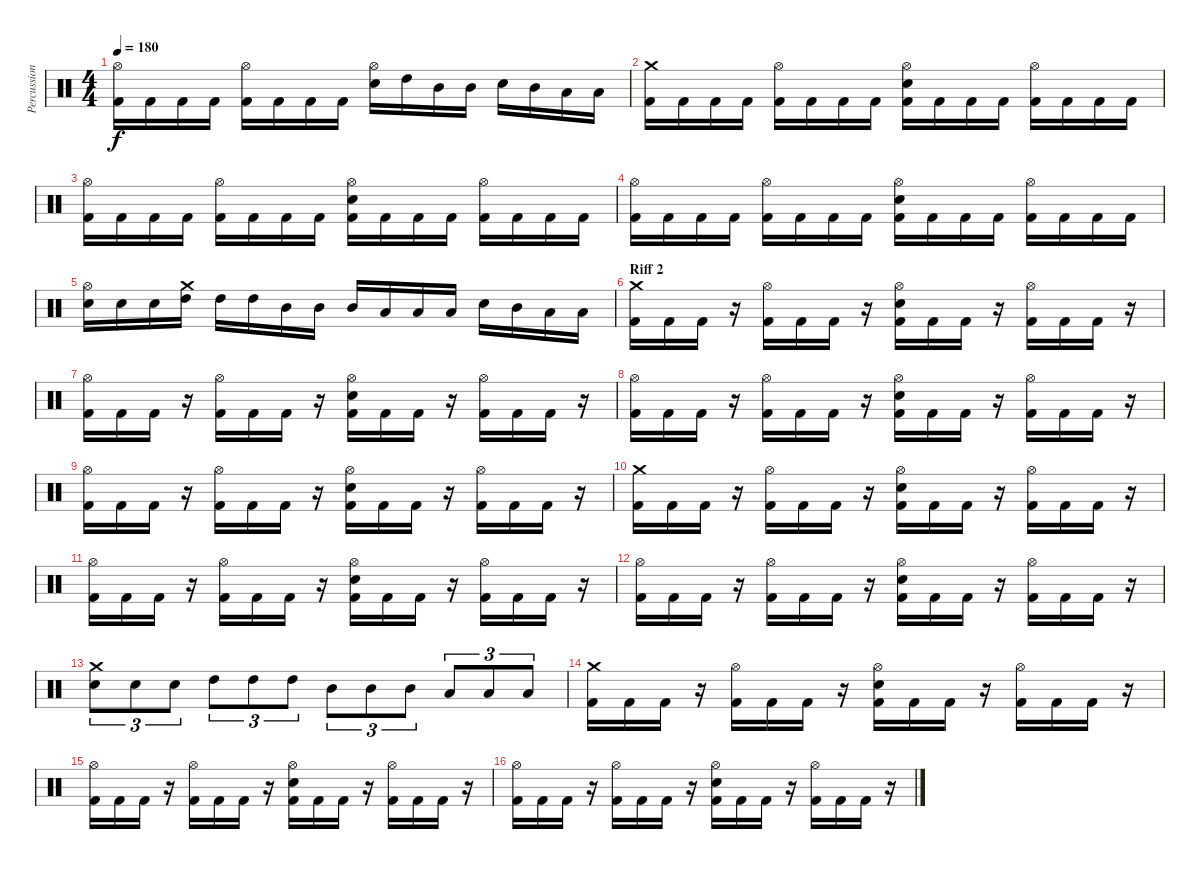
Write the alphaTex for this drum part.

\track ("Percussions" "Percussion") {instrument percussion}
\staff {score}
\articulation defaults
\ts (4 4)
\tempo 180
\clef neutral
\ks c
("Hi-Hat (open)" "Kick (hit) 2").16{dy f} "Kick (hit) 2".16 "Kick (hit) 2".16 "Kick (hit) 2".16 ("Hi-Hat (open)" "Kick (hit) 2").16 "Kick (hit) 2".16 "Kick (hit) 2".16 "Kick (hit) 2".16 ("Hi-Hat (open)" "Electric Snare (hit)").16 "High Tom (hit)".16 "Mid Tom (hit)".16 "Mid Tom (hit)".16 "Electric Snare (hit)".16 "Mid Tom (hit)".16 "Low Tom (hit)".16 "Low Tom (hit)".16 |
("Crash medium (hit)" "Kick (hit) 2").16 "Kick (hit) 2".16 "Kick (hit) 2".16 "Kick (hit) 2".16 ("Hi-Hat (open)" "Kick (hit) 2").16 "Kick (hit) 2".16 "Kick (hit) 2".16 "Kick (hit) 2".16 ("Hi-Hat (open)" "Electric Snare (hit)" "Kick (hit) 2").16 "Kick (hit) 2".16 "Kick (hit) 2".16 "Kick (hit) 2".16 ("Hi-Hat (open)" "Kick (hit) 2").16 "Kick (hit) 2".16 "Kick (hit) 2".16 "Kick (hit) 2".16 |
("Hi-Hat (open)" "Kick (hit) 2").16 "Kick (hit) 2".16 "Kick (hit) 2".16 "Kick (hit) 2".16 ("Hi-Hat (open)" "Kick (hit) 2").16 "Kick (hit) 2".16 "Kick (hit) 2".16 "Kick (hit) 2".16 ("Hi-Hat (open)" "Electric Snare (hit)" "Kick (hit) 2").16 "Kick (hit) 2".16 "Kick (hit) 2".16 "Kick (hit) 2".16 ("Hi-Hat (open)" "Kick (hit) 2").16 "Kick (hit) 2".16 "Kick (hit) 2".16 "Kick (hit) 2".16 |
("Hi-Hat (open)" "Kick (hit) 2").16 "Kick (hit) 2".16 "Kick (hit) 2".16 "Kick (hit) 2".16 ("Hi-Hat (open)" "Kick (hit) 2").16 "Kick (hit) 2".16 "Kick (hit) 2".16 "Kick (hit) 2".16 ("Hi-Hat (open)" "Electric Snare (hit)" "Kick (hit) 2").16 "Kick (hit) 2".16 "Kick (hit) 2".16 "Kick (hit) 2".16 ("Hi-Hat (open)" "Kick (hit) 2").16 "Kick (hit) 2".16 "Kick (hit) 2".16 "Kick (hit) 2".16 |
("Hi-Hat (open)" "Electric Snare (hit)").16 "Electric Snare (hit)".16 "Electric Snare (hit)".16 ("Crash medium (hit)" "High Tom (hit)").16 "High Tom (hit)".16 "High Tom (hit)".16 "Mid Tom (hit)".16 "Mid Tom (hit)".16 "Mid Tom (hit)".16 "Low Tom (hit)".16 "Low Tom (hit)".16 "Low Tom (hit)".16 "Electric Snare (hit)".16 "Mid Tom (hit)".16 "Low Tom (hit)".16 "Low Tom (hit)".16 |
\section ("" "Riff 2")
("Crash medium (hit)" "Kick (hit) 2").16 "Kick (hit) 2".16 "Kick (hit) 2".16 r.16 ("Hi-Hat (open)" "Kick (hit) 2").16 "Kick (hit) 2".16 "Kick (hit) 2".16 r.16 ("Hi-Hat (open)" "Electric Snare (hit)" "Kick (hit) 2").16 "Kick (hit) 2".16 "Kick (hit) 2".16 r.16 ("Hi-Hat (open)" "Kick (hit) 2").16 "Kick (hit) 2".16 "Kick (hit) 2".16 r.16 |
("Hi-Hat (open)" "Kick (hit) 2").16 "Kick (hit) 2".16 "Kick (hit) 2".16 r.16 ("Hi-Hat (open)" "Kick (hit) 2").16 "Kick (hit) 2".16 "Kick (hit) 2".16 r.16 ("Hi-Hat (open)" "Electric Snare (hit)" "Kick (hit) 2").16 "Kick (hit) 2".16 "Kick (hit) 2".16 r.16 ("Hi-Hat (open)" "Kick (hit) 2").16 "Kick (hit) 2".16 "Kick (hit) 2".16 r.16 |
("Hi-Hat (open)" "Kick (hit) 2").16 "Kick (hit) 2".16 "Kick (hit) 2".16 r.16 ("Hi-Hat (open)" "Kick (hit) 2").16 "Kick (hit) 2".16 "Kick (hit) 2".16 r.16 ("Hi-Hat (open)" "Electric Snare (hit)" "Kick (hit) 2").16 "Kick (hit) 2".16 "Kick (hit) 2".16 r.16 ("Hi-Hat (open)" "Kick (hit) 2").16 "Kick (hit) 2".16 "Kick (hit) 2".16 r.16 |
("Hi-Hat (open)" "Kick (hit) 2").16 "Kick (hit) 2".16 "Kick (hit) 2".16 r.16 ("Hi-Hat (open)" "Kick (hit) 2").16 "Kick (hit) 2".16 "Kick (hit) 2".16 r.16 ("Hi-Hat (open)" "Electric Snare (hit)" "Kick (hit) 2").16 "Kick (hit) 2".16 "Kick (hit) 2".16 r.16 ("Hi-Hat (open)" "Kick (hit) 2").16 "Kick (hit) 2".16 "Kick (hit) 2".16 r.16 |
("Crash medium (hit)" "Kick (hit) 2").16 "Kick (hit) 2".16 "Kick (hit) 2".16 r.16 ("Hi-Hat (open)" "Kick (hit) 2").16 "Kick (hit) 2".16 "Kick (hit) 2".16 r.16 ("Hi-Hat (open)" "Electric Snare (hit)" "Kick (hit) 2").16 "Kick (hit) 2".16 "Kick (hit) 2".16 r.16 ("Hi-Hat (open)" "Kick (hit) 2").16 "Kick (hit) 2".16 "Kick (hit) 2".16 r.16 |
("Hi-Hat (open)" "Kick (hit) 2").16 "Kick (hit) 2".16 "Kick (hit) 2".16 r.16 ("Hi-Hat (open)" "Kick (hit) 2").16 "Kick (hit) 2".16 "Kick (hit) 2".16 r.16 ("Hi-Hat (open)" "Electric Snare (hit)" "Kick (hit) 2").16 "Kick (hit) 2".16 "Kick (hit) 2".16 r.16 ("Hi-Hat (open)" "Kick (hit) 2").16 "Kick (hit) 2".16 "Kick (hit) 2".16 r.16 |
("Hi-Hat (open)" "Kick (hit) 2").16 "Kick (hit) 2".16 "Kick (hit) 2".16 r.16 ("Hi-Hat (open)" "Kick (hit) 2").16 "Kick (hit) 2".16 "Kick (hit) 2".16 r.16 ("Hi-Hat (open)" "Electric Snare (hit)" "Kick (hit) 2").16 "Kick (hit) 2".16 "Kick (hit) 2".16 r.16 ("Hi-Hat (open)" "Kick (hit) 2").16 "Kick (hit) 2".16 "Kick (hit) 2".16 r.16 |
("Crash medium (hit)" "Electric Snare (hit)").8{tu (3 2)} "Electric Snare (hit)".8{tu (3 2)} "Electric Snare (hit)".8{tu (3 2)} "High Tom (hit)".8{tu (3 2)} "High Tom (hit)".8{tu (3 2)} "High Tom (hit)".8{tu (3 2)} "Mid Tom (hit)".8{tu (3 2)} "Mid Tom (hit)".8{tu (3 2)} "Mid Tom (hit)".8{tu (3 2)} "Low Tom (hit)".8{tu (3 2)} "Low Tom (hit)".8{tu (3 2)} "Low Tom (hit)".8{tu (3 2)} |
("Crash medium (hit)" "Kick (hit) 2").16 "Kick (hit) 2".16 "Kick (hit) 2".16 r.16 ("Hi-Hat (open)" "Kick (hit) 2").16 "Kick (hit) 2".16 "Kick (hit) 2".16 r.16 ("Hi-Hat (open)" "Electric Snare (hit)" "Kick (hit) 2").16 "Kick (hit) 2".16 "Kick (hit) 2".16 r.16 ("Hi-Hat (open)" "Kick (hit) 2").16 "Kick (hit) 2".16 "Kick (hit) 2".16 r.16 |
("Hi-Hat (open)" "Kick (hit) 2").16 "Kick (hit) 2".16 "Kick (hit) 2".16 r.16 ("Hi-Hat (open)" "Kick (hit) 2").16 "Kick (hit) 2".16 "Kick (hit) 2".16 r.16 ("Hi-Hat (open)" "Electric Snare (hit)" "Kick (hit) 2").16 "Kick (hit) 2".16 "Kick (hit) 2".16 r.16 ("Hi-Hat (open)" "Kick (hit) 2").16 "Kick (hit) 2".16 "Kick (hit) 2".16 r.16 |
("Hi-Hat (open)" "Kick (hit) 2").16 "Kick (hit) 2".16 "Kick (hit) 2".16 r.16 ("Hi-Hat (open)" "Kick (hit) 2").16 "Kick (hit) 2".16 "Kick (hit) 2".16 r.16 ("Hi-Hat (open)" "Electric Snare (hit)" "Kick (hit) 2").16 "Kick (hit) 2".16 "Kick (hit) 2".16 r.16 ("Hi-Hat (open)" "Kick (hit) 2").16 "Kick (hit) 2".16 "Kick (hit) 2".16 r.16
